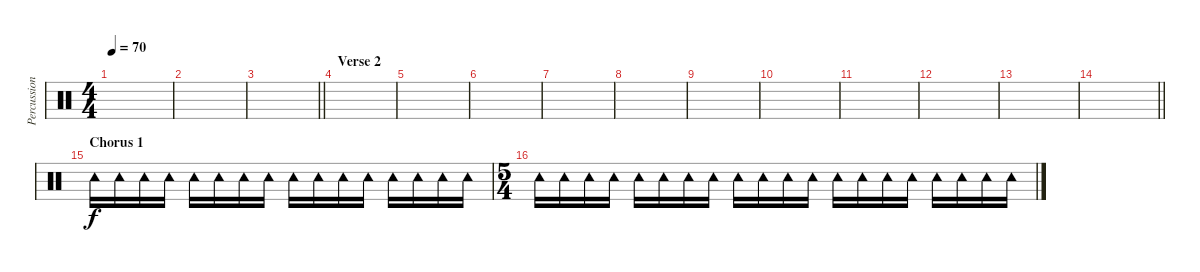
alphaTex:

\track ("Percussion" "Percussion") {instrument percussion}
\staff {score}
\articulation defaults
\ts (4 4)
\tempo 70
\clef neutral
\ks c
|
|
\barLineRight lightlight
|
\section ("" "Verse 2")
|
|
|
|
|
|
|
|
|
|
\barLineRight lightlight
|
\section ("" "Chorus 1")
"Tambourine (hit)".16 "Tambourine (hit)".16 "Tambourine (hit)".16 "Tambourine (hit)".16 "Tambourine (hit)".16 "Tambourine (hit)".16 "Tambourine (hit)".16 "Tambourine (hit)".16 "Tambourine (hit)".16 "Tambourine (hit)".16 "Tambourine (hit)".16 "Tambourine (hit)".16 "Tambourine (hit)".16 "Tambourine (hit)".16 "Tambourine (hit)".16 "Tambourine (hit)".16 |
\ts (5 4)
"Tambourine (hit)".16 "Tambourine (hit)".16 "Tambourine (hit)".16 "Tambourine (hit)".16 "Tambourine (hit)".16 "Tambourine (hit)".16 "Tambourine (hit)".16 "Tambourine (hit)".16 "Tambourine (hit)".16 "Tambourine (hit)".16 "Tambourine (hit)".16 "Tambourine (hit)".16 "Tambourine (hit)".16 "Tambourine (hit)".16 "Tambourine (hit)".16 "Tambourine (hit)".16 "Tambourine (hit)".16 "Tambourine (hit)".16 "Tambourine (hit)".16 "Tambourine (hit)".16
